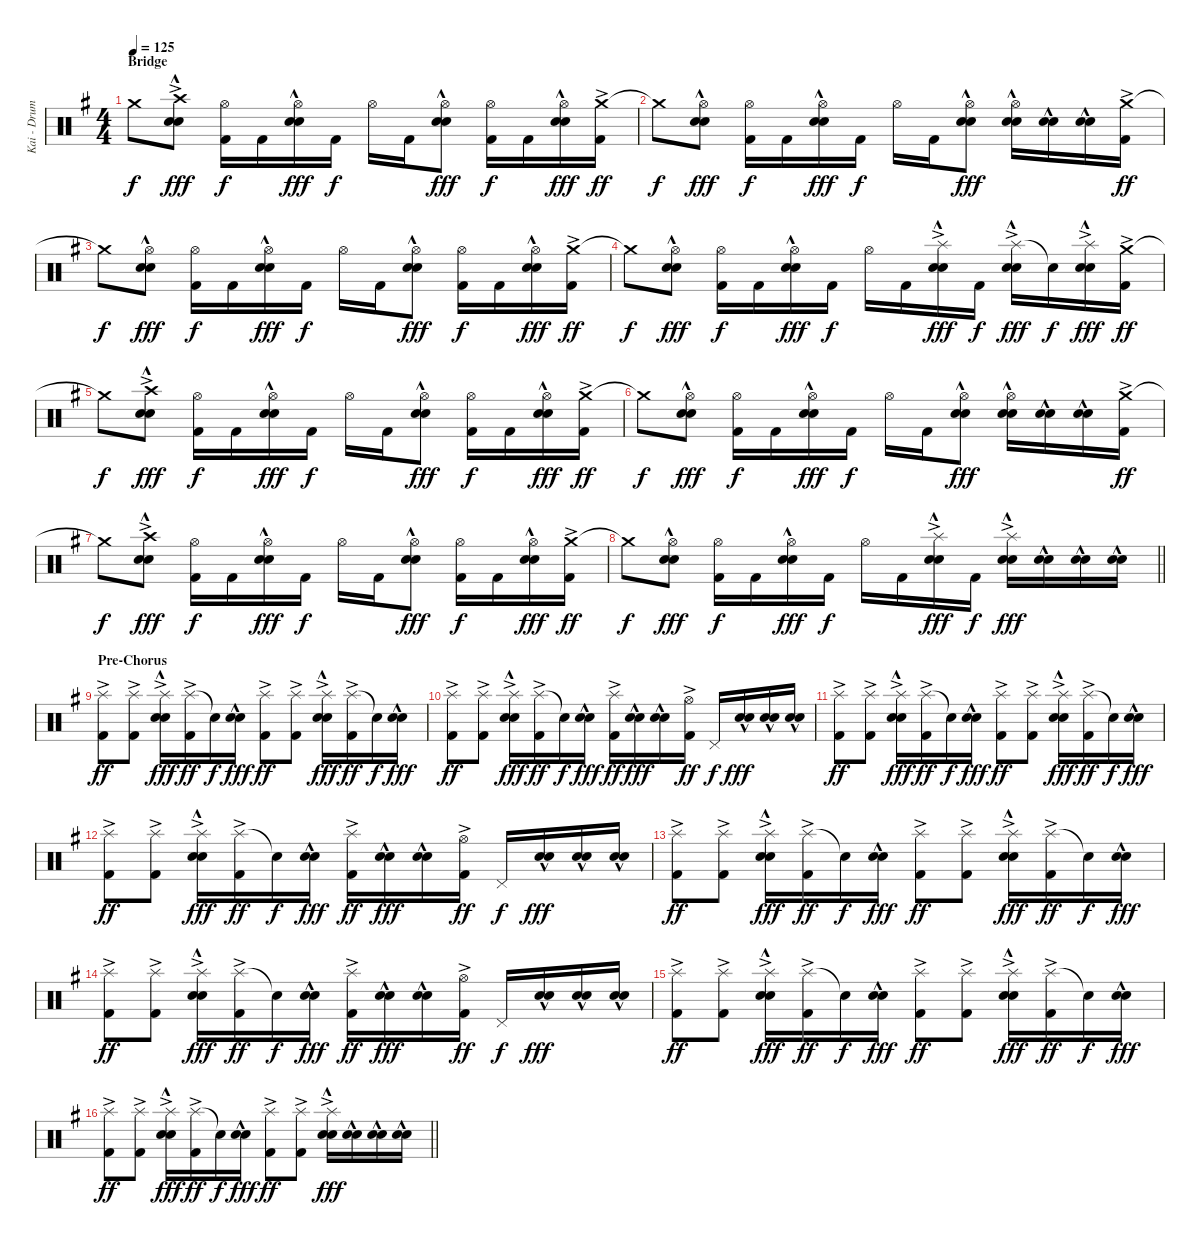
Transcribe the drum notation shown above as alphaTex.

\track ("Kai - Drums" "Kai - Drum") {instrument percussion}
\staff {score}
\articulation defaults
\ts (4 4)
\section ("" "Bridge")
\tempo 125
\clef neutral
\ks eminor "Crash medium (hit)"{t}.8{dy f}
("Crash high (hit)"{ac} "Electric Snare (hit)"{hac} "Snare (hit) 2"{hac}).8{dy fff} ("Hi-Hat (open)" "Kick (hit) 2").16{dy f} "Kick (hit) 2".16 ("Hi-Hat (open)" "Electric Snare (hit)"{hac} "Snare (hit) 2"{hac}).16{dy fff} "Kick (hit) 2".16{dy f} "Hi-Hat (open)".16 "Kick (hit) 2".16 ("Hi-Hat (open)" "Electric Snare (hit)"{hac} "Snare (hit) 2"{hac}).8{dy fff} ("Hi-Hat (open)" "Kick (hit) 2").16{dy f} "Kick (hit) 2".16 ("Hi-Hat (open)" "Electric Snare (hit)"{hac} "Snare (hit) 2"{hac}).16{dy fff} ("Crash medium (hit)"{ac} "Kick (hit) 2").16{dy ff} |
"Crash medium (hit)"{t}.8{dy f} ("Hi-Hat (open)" "Electric Snare (hit)"{hac} "Snare (hit) 2"{hac}).8{dy fff} ("Hi-Hat (open)" "Kick (hit) 2").16{dy f} "Kick (hit) 2".16 ("Hi-Hat (open)" "Electric Snare (hit)"{hac} "Snare (hit) 2"{hac}).16{dy fff} "Kick (hit) 2".16{dy f} "Hi-Hat (open)".16 "Kick (hit) 2".16 ("Hi-Hat (open)" "Electric Snare (hit)"{hac} "Snare (hit) 2"{hac}).8{dy fff} ("Hi-Hat (open)" "Electric Snare (hit)"{hac} "Snare (hit) 2"{hac}).16 ("Electric Snare (hit)"{hac} "Snare (hit) 2"{hac}).16 ("Electric Snare (hit)"{hac} "Snare (hit) 2"{hac}).16 ("Crash medium (hit)"{ac} "Kick (hit) 2").16{dy ff} |
"Crash medium (hit)"{t}.8{dy f} ("Hi-Hat (open)" "Electric Snare (hit)"{hac} "Snare (hit) 2"{hac}).8{dy fff} ("Hi-Hat (open)" "Kick (hit) 2").16{dy f} "Kick (hit) 2".16 ("Hi-Hat (open)" "Electric Snare (hit)"{hac} "Snare (hit) 2"{hac}).16{dy fff} "Kick (hit) 2".16{dy f} "Hi-Hat (open)".16 "Kick (hit) 2".16 ("Hi-Hat (open)" "Electric Snare (hit)"{hac} "Snare (hit) 2"{hac}).8{dy fff} ("Hi-Hat (open)" "Kick (hit) 2").16{dy f} "Kick (hit) 2".16 ("Hi-Hat (open)" "Electric Snare (hit)"{hac} "Snare (hit) 2"{hac}).16{dy fff} ("Crash medium (hit)"{ac} "Kick (hit) 2").16{dy ff} |
"Crash medium (hit)"{t}.8{dy f} ("Hi-Hat (open)" "Electric Snare (hit)"{hac} "Snare (hit) 2"{hac}).8{dy fff} ("Hi-Hat (open)" "Kick (hit) 2").16{dy f} "Kick (hit) 2".16 ("Hi-Hat (open)" "Electric Snare (hit)"{hac} "Snare (hit) 2"{hac}).16{dy fff} "Kick (hit) 2".16{dy f} "Hi-Hat (open)".16 "Kick (hit) 2".16 ("Splash (hit)"{ac} "Electric Snare (hit)"{hac} "Snare (hit) 2"{hac}).16{dy fff} "Kick (hit) 2".16{dy f} ("Splash (hit)"{ac} "Electric Snare (hit)"{hac} "Snare (hit) 2"{hac}).16{dy fff} "Snare (hit)"{t}.16{dy f} ("Splash (hit)"{ac} "Electric Snare (hit)"{hac} "Snare (hit) 2"{hac}).16{dy fff} ("Crash medium (hit)"{ac} "Kick (hit) 2").16{dy ff} |
"Crash medium (hit)"{t}.8{dy f} ("Crash high (hit)"{ac} "Electric Snare (hit)"{hac} "Snare (hit) 2"{hac}).8{dy fff} ("Hi-Hat (open)" "Kick (hit) 2").16{dy f} "Kick (hit) 2".16 ("Hi-Hat (open)" "Electric Snare (hit)"{hac} "Snare (hit) 2"{hac}).16{dy fff} "Kick (hit) 2".16{dy f} "Hi-Hat (open)".16 "Kick (hit) 2".16 ("Hi-Hat (open)" "Electric Snare (hit)"{hac} "Snare (hit) 2"{hac}).8{dy fff} ("Hi-Hat (open)" "Kick (hit) 2").16{dy f} "Kick (hit) 2".16 ("Hi-Hat (open)" "Electric Snare (hit)"{hac} "Snare (hit) 2"{hac}).16{dy fff} ("Crash medium (hit)"{ac} "Kick (hit) 2").16{dy ff} |
"Crash medium (hit)"{t}.8{dy f} ("Hi-Hat (open)" "Electric Snare (hit)"{hac} "Snare (hit) 2"{hac}).8{dy fff} ("Hi-Hat (open)" "Kick (hit) 2").16{dy f} "Kick (hit) 2".16 ("Hi-Hat (open)" "Electric Snare (hit)"{hac} "Snare (hit) 2"{hac}).16{dy fff} "Kick (hit) 2".16{dy f} "Hi-Hat (open)".16 "Kick (hit) 2".16 ("Hi-Hat (open)" "Electric Snare (hit)"{hac} "Snare (hit) 2"{hac}).8{dy fff} ("Hi-Hat (open)" "Electric Snare (hit)"{hac} "Snare (hit) 2"{hac}).16 ("Electric Snare (hit)"{hac} "Snare (hit) 2"{hac}).16 ("Electric Snare (hit)"{hac} "Snare (hit) 2"{hac}).16 ("Crash medium (hit)"{ac} "Kick (hit) 2").16{dy ff} |
"Crash medium (hit)"{t}.8{dy f} ("Crash high (hit)"{ac} "Electric Snare (hit)"{hac} "Snare (hit) 2"{hac}).8{dy fff} ("Hi-Hat (open)" "Kick (hit) 2").16{dy f} "Kick (hit) 2".16 ("Hi-Hat (open)" "Electric Snare (hit)"{hac} "Snare (hit) 2"{hac}).16{dy fff} "Kick (hit) 2".16{dy f} "Hi-Hat (open)".16 "Kick (hit) 2".16 ("Hi-Hat (open)" "Electric Snare (hit)"{hac} "Snare (hit) 2"{hac}).8{dy fff} ("Hi-Hat (open)" "Kick (hit) 2").16{dy f} "Kick (hit) 2".16 ("Hi-Hat (open)" "Electric Snare (hit)"{hac} "Snare (hit) 2"{hac}).16{dy fff} ("Crash medium (hit)"{ac} "Kick (hit) 2").16{dy ff} |
\barLineRight lightlight "Crash medium (hit)"{t}.8{dy f}
("Hi-Hat (open)" "Electric Snare (hit)"{hac} "Snare (hit) 2"{hac}).8{dy fff} ("Hi-Hat (open)" "Kick (hit) 2").16{dy f} "Kick (hit) 2".16 ("Hi-Hat (open)" "Electric Snare (hit)"{hac} "Snare (hit) 2"{hac}).16{dy fff} "Kick (hit) 2".16{dy f} "Hi-Hat (open)".16 "Kick (hit) 2".16 ("Splash (hit)"{ac} "Electric Snare (hit)"{hac} "Snare (hit) 2"{hac}).16{dy fff} "Kick (hit) 2".16{dy f} ("Splash (hit)"{ac} "Electric Snare (hit)"{hac} "Snare (hit) 2"{hac}).16{dy fff} ("Electric Snare (hit)"{hac} "Snare (hit) 2"{hac}).16 ("Electric Snare (hit)"{hac} "Snare (hit) 2"{hac}).16 ("Electric Snare (hit)"{hac} "Snare (hit) 2"{hac}).16 |
\section ("" "Pre-Chorus")
("Splash (hit)"{ac} "Kick (hit) 2").8{dy ff} ("Splash (hit)"{ac} "Kick (hit) 2").8 ("Splash (hit)"{ac} "Electric Snare (hit)"{hac} "Snare (hit) 2"{hac}).16{dy fff} ("Splash (hit)"{ac} "Kick (hit) 2").16{dy ff} "Snare (hit)"{t}.16{dy f} ("Electric Snare (hit)"{hac} "Snare (hit) 2"{hac}).16{dy fff} ("Splash (hit)"{ac} "Kick (hit) 2").8{dy ff} ("Splash (hit)"{ac} "Kick (hit) 2").8 ("Splash (hit)"{ac} "Electric Snare (hit)"{hac} "Snare (hit) 2"{hac}).16{dy fff} ("Splash (hit)"{ac} "Kick (hit) 2").16{dy ff} "Snare (hit)"{t}.16{dy f} ("Electric Snare (hit)"{hac} "Snare (hit) 2"{hac}).16{dy fff} |
("Splash (hit)"{ac} "Kick (hit) 2").8{dy ff} ("Splash (hit)"{ac} "Kick (hit) 2").8 ("Splash (hit)"{ac} "Electric Snare (hit)"{hac} "Snare (hit) 2"{hac}).16{dy fff} ("Splash (hit)"{ac} "Kick (hit) 2").16{dy ff} "Snare (hit)"{t}.16{dy f} ("Electric Snare (hit)"{hac} "Snare (hit) 2"{hac}).16{dy fff} ("Splash (hit)"{ac} "Kick (hit) 2").16{dy ff} ("Electric Snare (hit)"{hac} "Snare (hit) 2"{hac}).16{dy fff} ("Electric Snare (hit)"{hac} "Snare (hit) 2"{hac}).16 ("Hi-Hat (open)"{ac} "Kick (hit) 2").16{dy ff} "Pedal Hi-Hat (hit)".16{dy f} ("Electric Snare (hit)"{hac} "Snare (hit) 2"{hac}).16{dy fff} ("Electric Snare (hit)"{hac} "Snare (hit) 2"{hac}).16 ("Electric Snare (hit)"{hac} "Snare (hit) 2"{hac}).16 |
("Splash (hit)"{ac} "Kick (hit) 2").8{dy ff} ("Splash (hit)"{ac} "Kick (hit) 2").8 ("Splash (hit)"{ac} "Electric Snare (hit)"{hac} "Snare (hit) 2"{hac}).16{dy fff} ("Splash (hit)"{ac} "Kick (hit) 2").16{dy ff} "Snare (hit)"{t}.16{dy f} ("Electric Snare (hit)"{hac} "Snare (hit) 2"{hac}).16{dy fff} ("Splash (hit)"{ac} "Kick (hit) 2").8{dy ff} ("Splash (hit)"{ac} "Kick (hit) 2").8 ("Splash (hit)"{ac} "Electric Snare (hit)"{hac} "Snare (hit) 2"{hac}).16{dy fff} ("Splash (hit)"{ac} "Kick (hit) 2").16{dy ff} "Snare (hit)"{t}.16{dy f} ("Electric Snare (hit)"{hac} "Snare (hit) 2"{hac}).16{dy fff} |
("Splash (hit)"{ac} "Kick (hit) 2").8{dy ff} ("Splash (hit)"{ac} "Kick (hit) 2").8 ("Splash (hit)"{ac} "Electric Snare (hit)"{hac} "Snare (hit) 2"{hac}).16{dy fff} ("Splash (hit)"{ac} "Kick (hit) 2").16{dy ff} "Snare (hit)"{t}.16{dy f} ("Electric Snare (hit)"{hac} "Snare (hit) 2"{hac}).16{dy fff} ("Splash (hit)"{ac} "Kick (hit) 2").16{dy ff} ("Electric Snare (hit)"{hac} "Snare (hit) 2"{hac}).16{dy fff} ("Electric Snare (hit)"{hac} "Snare (hit) 2"{hac}).16 ("Hi-Hat (open)"{ac} "Kick (hit) 2").16{dy ff} "Pedal Hi-Hat (hit)".16{dy f} ("Electric Snare (hit)"{hac} "Snare (hit) 2"{hac}).16{dy fff} ("Electric Snare (hit)"{hac} "Snare (hit) 2"{hac}).16 ("Electric Snare (hit)"{hac} "Snare (hit) 2"{hac}).16 |
("Splash (hit)"{ac} "Kick (hit) 2").8{dy ff} ("Splash (hit)"{ac} "Kick (hit) 2").8 ("Splash (hit)"{ac} "Electric Snare (hit)"{hac} "Snare (hit) 2"{hac}).16{dy fff} ("Splash (hit)"{ac} "Kick (hit) 2").16{dy ff} "Snare (hit)"{t}.16{dy f} ("Electric Snare (hit)"{hac} "Snare (hit) 2"{hac}).16{dy fff} ("Splash (hit)"{ac} "Kick (hit) 2").8{dy ff} ("Splash (hit)"{ac} "Kick (hit) 2").8 ("Splash (hit)"{ac} "Electric Snare (hit)"{hac} "Snare (hit) 2"{hac}).16{dy fff} ("Splash (hit)"{ac} "Kick (hit) 2").16{dy ff} "Snare (hit)"{t}.16{dy f} ("Electric Snare (hit)"{hac} "Snare (hit) 2"{hac}).16{dy fff} |
("Splash (hit)"{ac} "Kick (hit) 2").8{dy ff} ("Splash (hit)"{ac} "Kick (hit) 2").8 ("Splash (hit)"{ac} "Electric Snare (hit)"{hac} "Snare (hit) 2"{hac}).16{dy fff} ("Splash (hit)"{ac} "Kick (hit) 2").16{dy ff} "Snare (hit)"{t}.16{dy f} ("Electric Snare (hit)"{hac} "Snare (hit) 2"{hac}).16{dy fff} ("Splash (hit)"{ac} "Kick (hit) 2").16{dy ff} ("Electric Snare (hit)"{hac} "Snare (hit) 2"{hac}).16{dy fff} ("Electric Snare (hit)"{hac} "Snare (hit) 2"{hac}).16 ("Hi-Hat (open)"{ac} "Kick (hit) 2").16{dy ff} "Pedal Hi-Hat (hit)".16{dy f} ("Electric Snare (hit)"{hac} "Snare (hit) 2"{hac}).16{dy fff} ("Electric Snare (hit)"{hac} "Snare (hit) 2"{hac}).16 ("Electric Snare (hit)"{hac} "Snare (hit) 2"{hac}).16 |
("Splash (hit)"{ac} "Kick (hit) 2").8{dy ff} ("Splash (hit)"{ac} "Kick (hit) 2").8 ("Splash (hit)"{ac} "Electric Snare (hit)"{hac} "Snare (hit) 2"{hac}).16{dy fff} ("Splash (hit)"{ac} "Kick (hit) 2").16{dy ff} "Snare (hit)"{t}.16{dy f} ("Electric Snare (hit)"{hac} "Snare (hit) 2"{hac}).16{dy fff} ("Splash (hit)"{ac} "Kick (hit) 2").8{dy ff} ("Splash (hit)"{ac} "Kick (hit) 2").8 ("Splash (hit)"{ac} "Electric Snare (hit)"{hac} "Snare (hit) 2"{hac}).16{dy fff} ("Splash (hit)"{ac} "Kick (hit) 2").16{dy ff} "Snare (hit)"{t}.16{dy f} ("Electric Snare (hit)"{hac} "Snare (hit) 2"{hac}).16{dy fff} |
\barLineRight lightlight
("Splash (hit)"{ac} "Kick (hit) 2").8{dy ff} ("Splash (hit)"{ac} "Kick (hit) 2").8 ("Splash (hit)"{ac} "Electric Snare (hit)"{hac} "Snare (hit) 2"{hac}).16{dy fff} ("Splash (hit)"{ac} "Kick (hit) 2").16{dy ff} "Snare (hit)"{t}.16{dy f} ("Electric Snare (hit)"{hac} "Snare (hit) 2"{hac}).16{dy fff} ("Splash (hit)"{ac} "Kick (hit) 2").8{dy ff} ("Splash (hit)"{ac} "Kick (hit) 2").8 ("Splash (hit)"{ac} "Electric Snare (hit)"{hac} "Snare (hit) 2"{hac}).16{dy fff} ("Electric Snare (hit)"{hac} "Snare (hit) 2"{hac}).16 ("Electric Snare (hit)"{hac} "Snare (hit) 2"{hac}).16 ("Electric Snare (hit)"{hac} "Snare (hit) 2"{hac}).16
